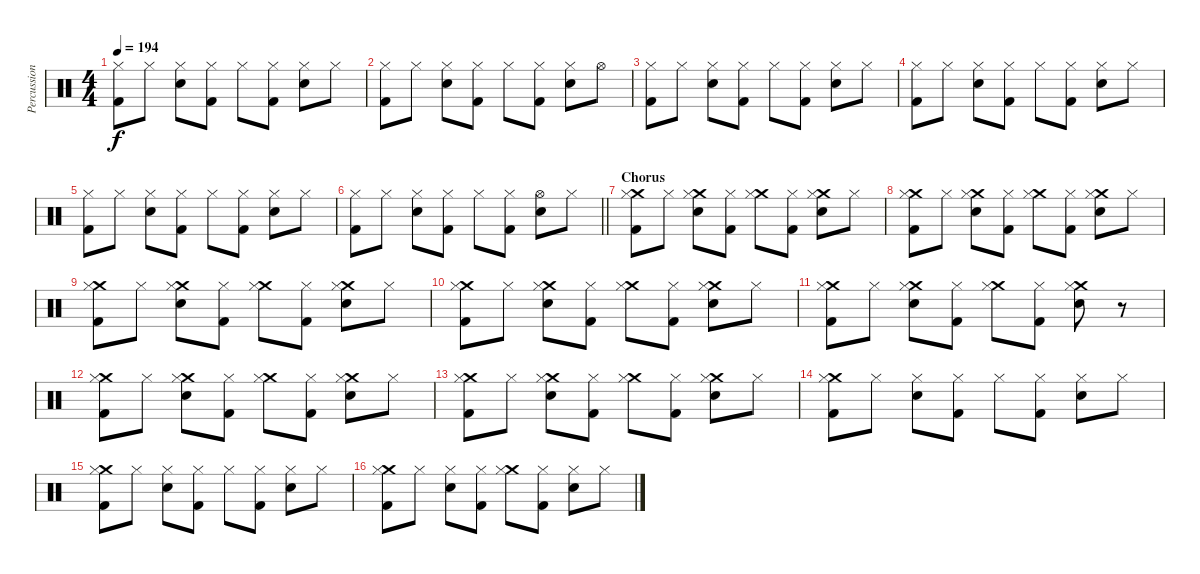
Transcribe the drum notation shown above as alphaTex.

\track ("Percussion" "Percussion") {instrument percussion}
\staff {score}
\articulation defaults
\ts (4 4)
\tempo 194
\clef neutral
\ks c
("Hi-Hat (closed)" "Kick (hit) 2").8{dy f} "Hi-Hat (closed)".8 ("Hi-Hat (closed)" "Snare (hit) 2").8 ("Hi-Hat (closed)" "Kick (hit) 2").8 "Hi-Hat (closed)".8 ("Hi-Hat (closed)" "Kick (hit) 2").8 ("Hi-Hat (closed)" "Snare (hit) 2").8 "Hi-Hat (closed)".8 |
("Hi-Hat (closed)" "Kick (hit) 2").8 "Hi-Hat (closed)".8 ("Hi-Hat (closed)" "Snare (hit) 2").8 ("Hi-Hat (closed)" "Kick (hit) 2").8 "Hi-Hat (closed)".8 ("Hi-Hat (closed)" "Kick (hit) 2").8 ("Hi-Hat (closed)" "Snare (hit) 2").8 "Hi-Hat (open)".8 |
("Hi-Hat (closed)" "Kick (hit) 2").8 "Hi-Hat (closed)".8 ("Hi-Hat (closed)" "Snare (hit) 2").8 ("Hi-Hat (closed)" "Kick (hit) 2").8 "Hi-Hat (closed)".8 ("Hi-Hat (closed)" "Kick (hit) 2").8 ("Hi-Hat (closed)" "Snare (hit) 2").8 "Hi-Hat (closed)".8 |
("Hi-Hat (closed)" "Kick (hit) 2").8 "Hi-Hat (closed)".8 ("Hi-Hat (closed)" "Snare (hit) 2").8 ("Hi-Hat (closed)" "Kick (hit) 2").8 "Hi-Hat (closed)".8 ("Hi-Hat (closed)" "Kick (hit) 2").8 ("Hi-Hat (closed)" "Snare (hit) 2").8 "Hi-Hat (closed)".8 |
("Hi-Hat (closed)" "Kick (hit) 2").8 "Hi-Hat (closed)".8 ("Hi-Hat (closed)" "Snare (hit) 2").8 ("Hi-Hat (closed)" "Kick (hit) 2").8 "Hi-Hat (closed)".8 ("Hi-Hat (closed)" "Kick (hit) 2").8 ("Hi-Hat (closed)" "Snare (hit) 2").8 "Hi-Hat (closed)".8 |
\barLineRight lightlight
("Hi-Hat (closed)" "Kick (hit) 2").8 "Hi-Hat (closed)".8 ("Hi-Hat (closed)" "Snare (hit) 2").8 ("Hi-Hat (closed)" "Kick (hit) 2").8 "Hi-Hat (closed)".8 ("Hi-Hat (closed)" "Kick (hit) 2").8 ("Hi-Hat (open)" "Snare (hit) 2").8 "Hi-Hat (closed)".8 |
\section ("" "Chorus")
("Crash medium (hit)" "Kick (hit) 2" "Hi-Hat (closed)").8 "Hi-Hat (closed)".8 ("Crash medium (hit)" "Snare (hit) 2" "Hi-Hat (closed)").8 ("Kick (hit) 2" "Hi-Hat (closed)").8 ("Crash medium (hit)" "Hi-Hat (closed)").8 ("Kick (hit) 2" "Hi-Hat (closed)").8 ("Crash medium (hit)" "Snare (hit) 2" "Hi-Hat (closed)").8 "Hi-Hat (closed)".8 |
("Crash medium (hit)" "Kick (hit) 2" "Hi-Hat (closed)").8 "Hi-Hat (closed)".8 ("Crash medium (hit)" "Snare (hit) 2" "Hi-Hat (closed)").8 ("Kick (hit) 2" "Hi-Hat (closed)").8 ("Crash medium (hit)" "Hi-Hat (closed)").8 ("Kick (hit) 2" "Hi-Hat (closed)").8 ("Crash medium (hit)" "Snare (hit) 2" "Hi-Hat (closed)").8 "Hi-Hat (closed)".8 |
("Crash medium (hit)" "Kick (hit) 2" "Hi-Hat (closed)").8 "Hi-Hat (closed)".8 ("Crash medium (hit)" "Snare (hit) 2" "Hi-Hat (closed)").8 ("Kick (hit) 2" "Hi-Hat (closed)").8 ("Crash medium (hit)" "Hi-Hat (closed)").8 ("Kick (hit) 2" "Hi-Hat (closed)").8 ("Crash medium (hit)" "Snare (hit) 2" "Hi-Hat (closed)").8 "Hi-Hat (closed)".8 |
("Crash medium (hit)" "Kick (hit) 2" "Hi-Hat (closed)").8 "Hi-Hat (closed)".8 ("Crash medium (hit)" "Snare (hit) 2" "Hi-Hat (closed)").8 ("Kick (hit) 2" "Hi-Hat (closed)").8 ("Crash medium (hit)" "Hi-Hat (closed)").8 ("Kick (hit) 2" "Hi-Hat (closed)").8 ("Crash medium (hit)" "Snare (hit) 2" "Hi-Hat (closed)").8 "Hi-Hat (closed)".8 |
("Crash medium (hit)" "Kick (hit) 2" "Hi-Hat (closed)").8 "Hi-Hat (closed)".8 ("Crash medium (hit)" "Snare (hit) 2" "Hi-Hat (closed)").8 ("Kick (hit) 2" "Hi-Hat (closed)").8 ("Crash medium (hit)" "Hi-Hat (closed)").8 ("Kick (hit) 2" "Hi-Hat (closed)").8 ("Crash medium (hit)" "Snare (hit) 2" "Hi-Hat (closed)").8 r.8 |
("Crash medium (hit)" "Kick (hit) 2" "Hi-Hat (closed)").8 "Hi-Hat (closed)".8 ("Crash medium (hit)" "Snare (hit) 2" "Hi-Hat (closed)").8 ("Kick (hit) 2" "Hi-Hat (closed)").8 ("Crash medium (hit)" "Hi-Hat (closed)").8 ("Kick (hit) 2" "Hi-Hat (closed)").8 ("Crash medium (hit)" "Snare (hit) 2" "Hi-Hat (closed)").8 "Hi-Hat (closed)".8 |
("Crash medium (hit)" "Kick (hit) 2" "Hi-Hat (closed)").8 "Hi-Hat (closed)".8 ("Crash medium (hit)" "Snare (hit) 2" "Hi-Hat (closed)").8 ("Kick (hit) 2" "Hi-Hat (closed)").8 ("Crash medium (hit)" "Hi-Hat (closed)").8 ("Kick (hit) 2" "Hi-Hat (closed)").8 ("Crash medium (hit)" "Snare (hit) 2" "Hi-Hat (closed)").8 "Hi-Hat (closed)".8 |
("Crash medium (hit)" "Kick (hit) 2" "Hi-Hat (closed)").8 "Hi-Hat (closed)".8 ("Snare (hit) 2" "Hi-Hat (closed)").8 ("Kick (hit) 2" "Hi-Hat (closed)").8 "Hi-Hat (closed)".8 ("Kick (hit) 2" "Hi-Hat (closed)").8 ("Snare (hit) 2" "Hi-Hat (closed)").8 "Hi-Hat (closed)".8 |
("Crash medium (hit)" "Kick (hit) 2" "Hi-Hat (closed)").8 "Hi-Hat (closed)".8 ("Snare (hit) 2" "Hi-Hat (closed)").8 ("Kick (hit) 2" "Hi-Hat (closed)").8 "Hi-Hat (closed)".8 ("Kick (hit) 2" "Hi-Hat (closed)").8 ("Snare (hit) 2" "Hi-Hat (closed)").8 "Hi-Hat (closed)".8 |
("Crash medium (hit)" "Kick (hit) 2" "Hi-Hat (closed)").8 "Hi-Hat (closed)".8 ("Snare (hit) 2" "Hi-Hat (closed)").8 ("Kick (hit) 2" "Hi-Hat (closed)").8 ("Crash medium (hit)" "Hi-Hat (closed)").8 ("Kick (hit) 2" "Hi-Hat (closed)").8 ("Snare (hit) 2" "Hi-Hat (closed)").8 "Hi-Hat (closed)".8
